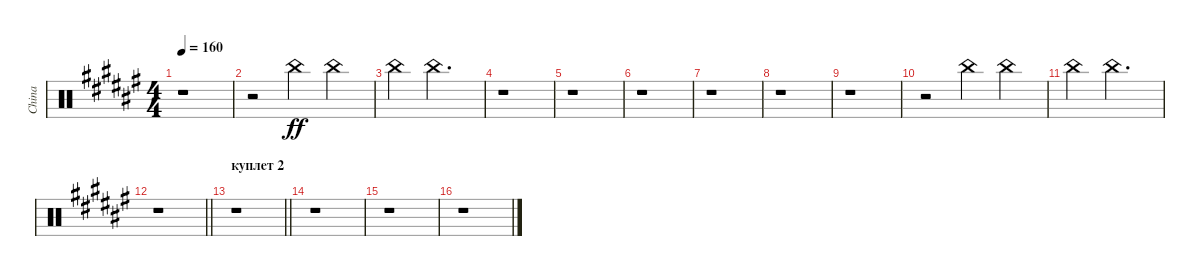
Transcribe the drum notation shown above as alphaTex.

\track ("China" "China") {instrument percussion}
\staff {score}
\articulation defaults
\ts (4 4)
\tempo 160
\clef neutral
\ks d#minor
r.1{dy ff} |
r.2 "China (hit)".4 "China (hit)".4 |
"China (hit)".4 "China (hit)".2{d} |
r.1 |
r.1 |
r.1 |
r.1 |
r.1 |
r.1 |
r.2 "China (hit)".4 "China (hit)".4 |
"China (hit)".4 "China (hit)".2{d} |
\barLineRight lightlight
r.1 |
\section ("" "куплет 2")
\barLineRight lightlight
r.1 |
r.1 |
r.1 |
r.1
